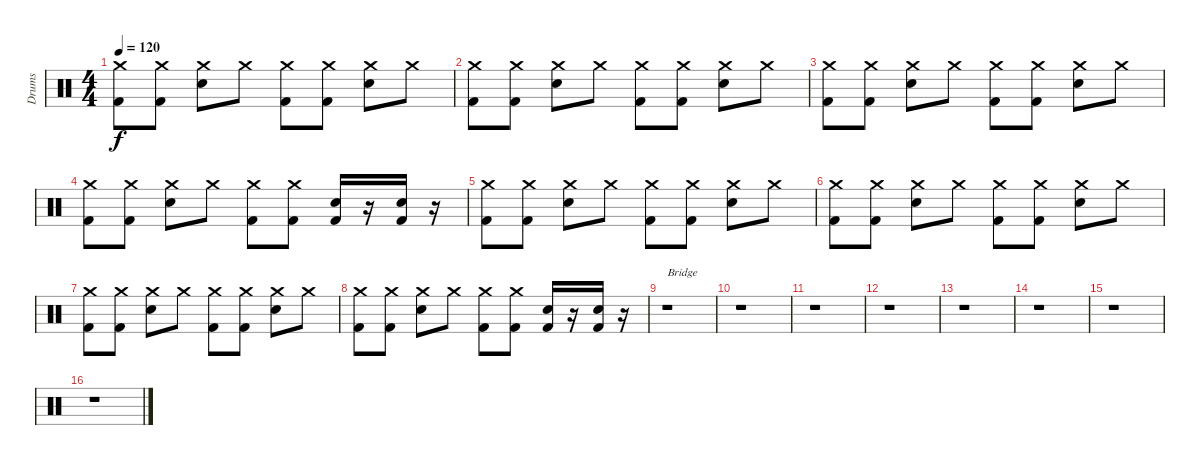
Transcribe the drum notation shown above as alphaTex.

\track ("Drums" "Drums") {instrument percussion}
\staff {score}
\articulation defaults
\ts (4 4)
\tempo 120
\clef neutral
\ks c
("Crash medium (hit)" "Kick (hit) 2").8{dy f} ("Crash medium (hit)" "Kick (hit) 2").8 ("Crash medium (hit)" "Electric Snare (hit)").8 "Crash medium (hit)".8 ("Crash medium (hit)" "Kick (hit) 2").8 ("Crash medium (hit)" "Kick (hit) 2").8 ("Crash medium (hit)" "Electric Snare (hit)").8 "Crash medium (hit)".8 |
("Crash medium (hit)" "Kick (hit) 2").8 ("Crash medium (hit)" "Kick (hit) 2").8 ("Crash medium (hit)" "Electric Snare (hit)").8 "Crash medium (hit)".8 ("Crash medium (hit)" "Kick (hit) 2").8 ("Crash medium (hit)" "Kick (hit) 2").8 ("Crash medium (hit)" "Electric Snare (hit)").8 "Crash medium (hit)".8 |
("Crash medium (hit)" "Kick (hit) 2").8 ("Crash medium (hit)" "Kick (hit) 2").8 ("Crash medium (hit)" "Electric Snare (hit)").8 "Crash medium (hit)".8 ("Crash medium (hit)" "Kick (hit) 2").8 ("Crash medium (hit)" "Kick (hit) 2").8 ("Crash medium (hit)" "Electric Snare (hit)").8 "Crash medium (hit)".8 |
("Crash medium (hit)" "Kick (hit) 2").8 ("Crash medium (hit)" "Kick (hit) 2").8 ("Crash medium (hit)" "Electric Snare (hit)").8 "Crash medium (hit)".8 ("Crash medium (hit)" "Kick (hit) 2").8 ("Crash medium (hit)" "Kick (hit) 2").8 ("Kick (hit) 2" "Electric Snare (hit)").16 r.16 ("Kick (hit) 2" "Electric Snare (hit)").16 r.16 |
("Crash medium (hit)" "Kick (hit) 2").8 ("Crash medium (hit)" "Kick (hit) 2").8 ("Crash medium (hit)" "Electric Snare (hit)").8 "Crash medium (hit)".8 ("Crash medium (hit)" "Kick (hit) 2").8 ("Crash medium (hit)" "Kick (hit) 2").8 ("Crash medium (hit)" "Electric Snare (hit)").8 "Crash medium (hit)".8 |
("Crash medium (hit)" "Kick (hit) 2").8 ("Crash medium (hit)" "Kick (hit) 2").8 ("Crash medium (hit)" "Electric Snare (hit)").8 "Crash medium (hit)".8 ("Crash medium (hit)" "Kick (hit) 2").8 ("Crash medium (hit)" "Kick (hit) 2").8 ("Crash medium (hit)" "Electric Snare (hit)").8 "Crash medium (hit)".8 |
("Crash medium (hit)" "Kick (hit) 2").8 ("Crash medium (hit)" "Kick (hit) 2").8 ("Crash medium (hit)" "Electric Snare (hit)").8 "Crash medium (hit)".8 ("Crash medium (hit)" "Kick (hit) 2").8 ("Crash medium (hit)" "Kick (hit) 2").8 ("Crash medium (hit)" "Electric Snare (hit)").8 "Crash medium (hit)".8 |
("Crash medium (hit)" "Kick (hit) 2").8 ("Crash medium (hit)" "Kick (hit) 2").8 ("Crash medium (hit)" "Electric Snare (hit)").8 "Crash medium (hit)".8 ("Crash medium (hit)" "Kick (hit) 2").8 ("Crash medium (hit)" "Kick (hit) 2").8 ("Kick (hit) 2" "Electric Snare (hit)").16 r.16 ("Kick (hit) 2" "Electric Snare (hit)").16 r.16 |
r.1{txt "Bridge"} |
r.1 |
r.1 |
r.1 |
r.1 |
r.1 |
r.1 |
r.1
